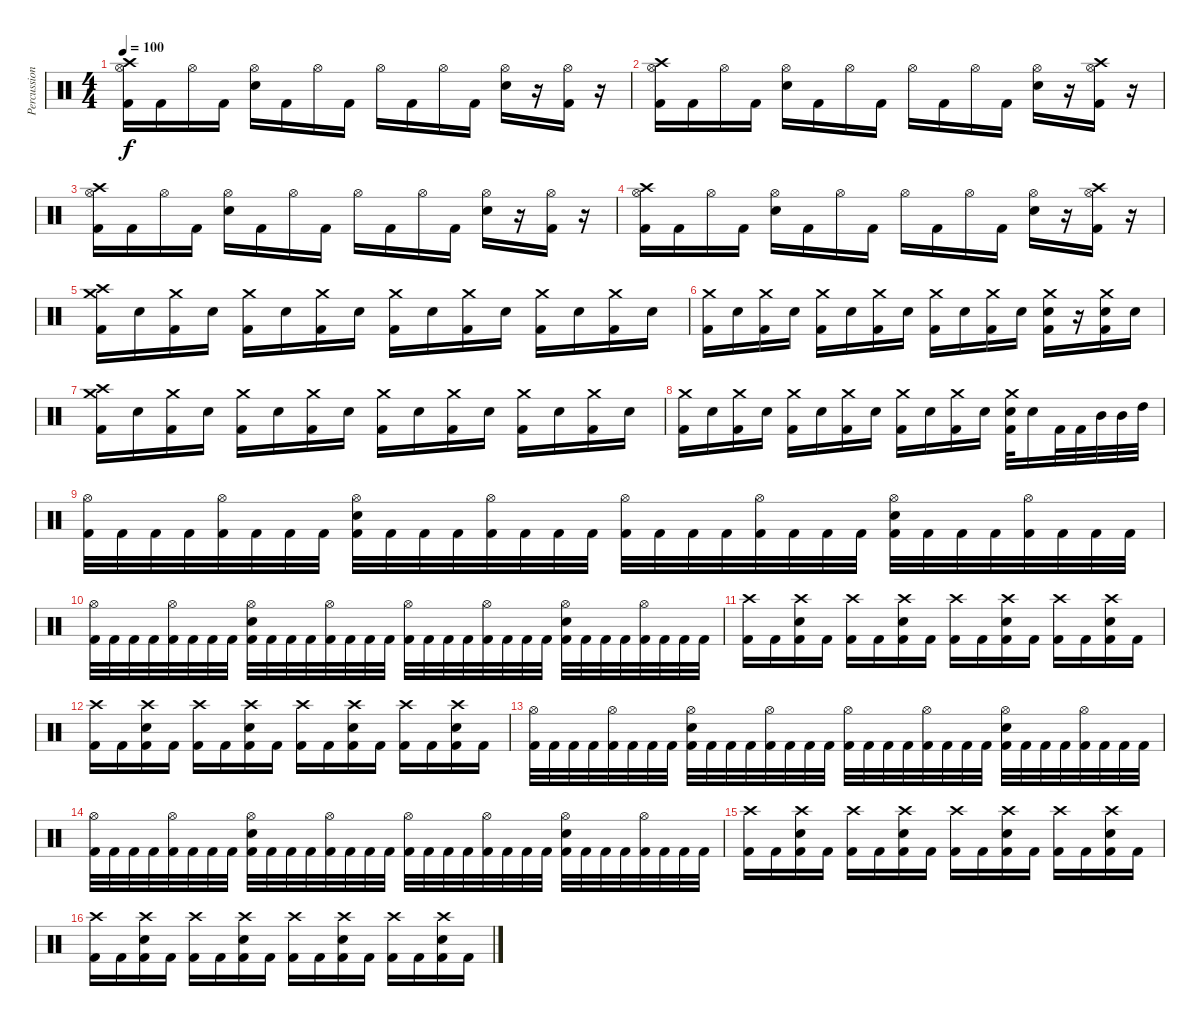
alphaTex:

\track ("Percussion" "Percussion") {instrument percussion}
\staff {score}
\articulation defaults
\ts (4 4)
\tempo 100
\clef neutral
\ks c
("Hi-Hat (open)" "Crash high (hit)" "Kick (hit) 2").16{dy f} "Kick (hit) 2".16 "Hi-Hat (open)".16 "Kick (hit) 2".16 ("Hi-Hat (open)" "Electric Snare (hit)").16 "Kick (hit) 2".16 "Hi-Hat (open)".16 "Kick (hit) 2".16 "Hi-Hat (open)".16 "Kick (hit) 2".16 "Hi-Hat (open)".16 "Kick (hit) 2".16 ("Hi-Hat (open)" "Electric Snare (hit)").16 r.16 ("Hi-Hat (open)" "Kick (hit) 2").16 r.16 |
("Hi-Hat (open)" "Crash high (hit)" "Kick (hit) 2").16 "Kick (hit) 2".16 "Hi-Hat (open)".16 "Kick (hit) 2".16 ("Hi-Hat (open)" "Electric Snare (hit)").16 "Kick (hit) 2".16 "Hi-Hat (open)".16 "Kick (hit) 2".16 "Hi-Hat (open)".16 "Kick (hit) 2".16 "Hi-Hat (open)".16 "Kick (hit) 2".16 ("Hi-Hat (open)" "Electric Snare (hit)").16 r.16 ("Hi-Hat (open)" "Crash high (hit)" "Kick (hit) 2").16 r.16 |
("Hi-Hat (open)" "Crash high (hit)" "Kick (hit) 2").16 "Kick (hit) 2".16 "Hi-Hat (open)".16 "Kick (hit) 2".16 ("Hi-Hat (open)" "Electric Snare (hit)").16 "Kick (hit) 2".16 "Hi-Hat (open)".16 "Kick (hit) 2".16 "Hi-Hat (open)".16 "Kick (hit) 2".16 "Hi-Hat (open)".16 "Kick (hit) 2".16 ("Hi-Hat (open)" "Electric Snare (hit)").16 r.16 ("Hi-Hat (open)" "Kick (hit) 2").16 r.16 |
("Hi-Hat (open)" "Crash high (hit)" "Kick (hit) 2").16 "Kick (hit) 2".16 "Hi-Hat (open)".16 "Kick (hit) 2".16 ("Hi-Hat (open)" "Electric Snare (hit)").16 "Kick (hit) 2".16 "Hi-Hat (open)".16 "Kick (hit) 2".16 "Hi-Hat (open)".16 "Kick (hit) 2".16 "Hi-Hat (open)".16 "Kick (hit) 2".16 ("Hi-Hat (open)" "Electric Snare (hit)").16 r.16 ("Hi-Hat (open)" "Crash high (hit)" "Kick (hit) 2").16 r.16 |
("Crash medium (hit)" "Crash high (hit)" "Kick (hit) 2").16 "Electric Snare (hit)".16 ("Crash medium (hit)" "Kick (hit) 2").16 "Electric Snare (hit)".16 ("Crash medium (hit)" "Kick (hit) 2").16 "Electric Snare (hit)".16 ("Crash medium (hit)" "Kick (hit) 2").16 "Electric Snare (hit)".16 ("Crash medium (hit)" "Kick (hit) 2").16 "Electric Snare (hit)".16 ("Crash medium (hit)" "Kick (hit) 2").16 "Electric Snare (hit)".16 ("Crash medium (hit)" "Kick (hit) 2").16 "Electric Snare (hit)".16 ("Crash medium (hit)" "Kick (hit) 2").16 "Electric Snare (hit)".16 |
("Crash medium (hit)" "Kick (hit) 2").16 "Electric Snare (hit)".16 ("Crash medium (hit)" "Kick (hit) 2").16 "Electric Snare (hit)".16 ("Crash medium (hit)" "Kick (hit) 2").16 "Electric Snare (hit)".16 ("Crash medium (hit)" "Kick (hit) 2").16 "Electric Snare (hit)".16 ("Crash medium (hit)" "Kick (hit) 2").16 "Electric Snare (hit)".16 ("Crash medium (hit)" "Kick (hit) 2").16 "Electric Snare (hit)".16 ("Crash medium (hit)" "Electric Snare (hit)" "Kick (hit) 2").16 r.16 ("Crash medium (hit)" "Electric Snare (hit)" "Kick (hit) 2").16 "Electric Snare (hit)".16 |
("Crash medium (hit)" "Crash high (hit)" "Kick (hit) 2").16 "Electric Snare (hit)".16 ("Crash medium (hit)" "Kick (hit) 2").16 "Electric Snare (hit)".16 ("Crash medium (hit)" "Kick (hit) 2").16 "Electric Snare (hit)".16 ("Crash medium (hit)" "Kick (hit) 2").16 "Electric Snare (hit)".16 ("Crash medium (hit)" "Kick (hit) 2").16 "Electric Snare (hit)".16 ("Crash medium (hit)" "Kick (hit) 2").16 "Electric Snare (hit)".16 ("Crash medium (hit)" "Kick (hit) 2").16 "Electric Snare (hit)".16 ("Crash medium (hit)" "Kick (hit) 2").16 "Electric Snare (hit)".16 |
("Crash medium (hit)" "Kick (hit) 2").16 "Electric Snare (hit)".16 ("Crash medium (hit)" "Kick (hit) 2").16 "Electric Snare (hit)".16 ("Crash medium (hit)" "Kick (hit) 2").16 "Electric Snare (hit)".16 ("Crash medium (hit)" "Kick (hit) 2").16 "Electric Snare (hit)".16 ("Crash medium (hit)" "Kick (hit) 2").16 "Electric Snare (hit)".16 ("Crash medium (hit)" "Kick (hit) 2").16 "Electric Snare (hit)".16 ("Crash medium (hit)" "Electric Snare (hit)" "Kick (hit) 2").32 "Electric Snare (hit)".16 "Kick (hit) 2".32 "Kick (hit) 2".32 "Mid Tom (hit)".32 "Mid Tom (hit)".32 "High Tom (hit)".32 |
("Hi-Hat (open)" "Kick (hit) 2").32 "Kick (hit) 2".32 "Kick (hit) 2".32 "Kick (hit) 2".32 ("Hi-Hat (open)" "Kick (hit) 2").32 "Kick (hit) 2".32 "Kick (hit) 2".32 "Kick (hit) 2".32 ("Hi-Hat (open)" "Electric Snare (hit)" "Kick (hit) 2").32 "Kick (hit) 2".32 "Kick (hit) 2".32 "Kick (hit) 2".32 ("Hi-Hat (open)" "Kick (hit) 2").32 "Kick (hit) 2".32 "Kick (hit) 2".32 "Kick (hit) 2".32 ("Hi-Hat (open)" "Kick (hit) 2").32 "Kick (hit) 2".32 "Kick (hit) 2".32 "Kick (hit) 2".32 ("Hi-Hat (open)" "Kick (hit) 2").32 "Kick (hit) 2".32 "Kick (hit) 2".32 "Kick (hit) 2".32 ("Hi-Hat (open)" "Electric Snare (hit)" "Kick (hit) 2").32 "Kick (hit) 2".32 "Kick (hit) 2".32 "Kick (hit) 2".32 ("Hi-Hat (open)" "Kick (hit) 2").32 "Kick (hit) 2".32 "Kick (hit) 2".32 "Kick (hit) 2".32 |
("Hi-Hat (open)" "Kick (hit) 2").32 "Kick (hit) 2".32 "Kick (hit) 2".32 "Kick (hit) 2".32 ("Hi-Hat (open)" "Kick (hit) 2").32 "Kick (hit) 2".32 "Kick (hit) 2".32 "Kick (hit) 2".32 ("Hi-Hat (open)" "Electric Snare (hit)" "Kick (hit) 2").32 "Kick (hit) 2".32 "Kick (hit) 2".32 "Kick (hit) 2".32 ("Hi-Hat (open)" "Kick (hit) 2").32 "Kick (hit) 2".32 "Kick (hit) 2".32 "Kick (hit) 2".32 ("Hi-Hat (open)" "Kick (hit) 2").32 "Kick (hit) 2".32 "Kick (hit) 2".32 "Kick (hit) 2".32 ("Hi-Hat (open)" "Kick (hit) 2").32 "Kick (hit) 2".32 "Kick (hit) 2".32 "Kick (hit) 2".32 ("Hi-Hat (open)" "Electric Snare (hit)" "Kick (hit) 2").32 "Kick (hit) 2".32 "Kick (hit) 2".32 "Kick (hit) 2".32 ("Hi-Hat (open)" "Kick (hit) 2").32 "Kick (hit) 2".32 "Kick (hit) 2".32 "Kick (hit) 2".32 |
("Crash high (hit)" "Kick (hit) 2").16 "Kick (hit) 2".16 ("Crash high (hit)" "Electric Snare (hit)" "Kick (hit) 2").16 "Kick (hit) 2".16 ("Crash high (hit)" "Kick (hit) 2").16 "Kick (hit) 2".16 ("Crash high (hit)" "Electric Snare (hit)" "Kick (hit) 2").16 "Kick (hit) 2".16 ("Crash high (hit)" "Kick (hit) 2").16 "Kick (hit) 2".16 ("Crash high (hit)" "Electric Snare (hit)" "Kick (hit) 2").16 "Kick (hit) 2".16 ("Crash high (hit)" "Kick (hit) 2").16 "Kick (hit) 2".16 ("Crash high (hit)" "Electric Snare (hit)" "Kick (hit) 2").16 "Kick (hit) 2".16 |
("Crash high (hit)" "Kick (hit) 2").16 "Kick (hit) 2".16 ("Crash high (hit)" "Electric Snare (hit)" "Kick (hit) 2").16 "Kick (hit) 2".16 ("Crash high (hit)" "Kick (hit) 2").16 "Kick (hit) 2".16 ("Crash high (hit)" "Electric Snare (hit)" "Kick (hit) 2").16 "Kick (hit) 2".16 ("Crash high (hit)" "Kick (hit) 2").16 "Kick (hit) 2".16 ("Crash high (hit)" "Electric Snare (hit)" "Kick (hit) 2").16 "Kick (hit) 2".16 ("Crash high (hit)" "Kick (hit) 2").16 "Kick (hit) 2".16 ("Crash high (hit)" "Electric Snare (hit)" "Kick (hit) 2").16 "Kick (hit) 2".16 |
("Hi-Hat (open)" "Kick (hit) 2").32 "Kick (hit) 2".32 "Kick (hit) 2".32 "Kick (hit) 2".32 ("Hi-Hat (open)" "Kick (hit) 2").32 "Kick (hit) 2".32 "Kick (hit) 2".32 "Kick (hit) 2".32 ("Hi-Hat (open)" "Electric Snare (hit)" "Kick (hit) 2").32 "Kick (hit) 2".32 "Kick (hit) 2".32 "Kick (hit) 2".32 ("Hi-Hat (open)" "Kick (hit) 2").32 "Kick (hit) 2".32 "Kick (hit) 2".32 "Kick (hit) 2".32 ("Hi-Hat (open)" "Kick (hit) 2").32 "Kick (hit) 2".32 "Kick (hit) 2".32 "Kick (hit) 2".32 ("Hi-Hat (open)" "Kick (hit) 2").32 "Kick (hit) 2".32 "Kick (hit) 2".32 "Kick (hit) 2".32 ("Hi-Hat (open)" "Electric Snare (hit)" "Kick (hit) 2").32 "Kick (hit) 2".32 "Kick (hit) 2".32 "Kick (hit) 2".32 ("Hi-Hat (open)" "Kick (hit) 2").32 "Kick (hit) 2".32 "Kick (hit) 2".32 "Kick (hit) 2".32 |
("Hi-Hat (open)" "Kick (hit) 2").32 "Kick (hit) 2".32 "Kick (hit) 2".32 "Kick (hit) 2".32 ("Hi-Hat (open)" "Kick (hit) 2").32 "Kick (hit) 2".32 "Kick (hit) 2".32 "Kick (hit) 2".32 ("Hi-Hat (open)" "Electric Snare (hit)" "Kick (hit) 2").32 "Kick (hit) 2".32 "Kick (hit) 2".32 "Kick (hit) 2".32 ("Hi-Hat (open)" "Kick (hit) 2").32 "Kick (hit) 2".32 "Kick (hit) 2".32 "Kick (hit) 2".32 ("Hi-Hat (open)" "Kick (hit) 2").32 "Kick (hit) 2".32 "Kick (hit) 2".32 "Kick (hit) 2".32 ("Hi-Hat (open)" "Kick (hit) 2").32 "Kick (hit) 2".32 "Kick (hit) 2".32 "Kick (hit) 2".32 ("Hi-Hat (open)" "Electric Snare (hit)" "Kick (hit) 2").32 "Kick (hit) 2".32 "Kick (hit) 2".32 "Kick (hit) 2".32 ("Hi-Hat (open)" "Kick (hit) 2").32 "Kick (hit) 2".32 "Kick (hit) 2".32 "Kick (hit) 2".32 |
("Crash high (hit)" "Kick (hit) 2").16 "Kick (hit) 2".16 ("Crash high (hit)" "Electric Snare (hit)" "Kick (hit) 2").16 "Kick (hit) 2".16 ("Crash high (hit)" "Kick (hit) 2").16 "Kick (hit) 2".16 ("Crash high (hit)" "Electric Snare (hit)" "Kick (hit) 2").16 "Kick (hit) 2".16 ("Crash high (hit)" "Kick (hit) 2").16 "Kick (hit) 2".16 ("Crash high (hit)" "Electric Snare (hit)" "Kick (hit) 2").16 "Kick (hit) 2".16 ("Crash high (hit)" "Kick (hit) 2").16 "Kick (hit) 2".16 ("Crash high (hit)" "Electric Snare (hit)" "Kick (hit) 2").16 "Kick (hit) 2".16 |
("Crash high (hit)" "Kick (hit) 2").16 "Kick (hit) 2".16 ("Crash high (hit)" "Electric Snare (hit)" "Kick (hit) 2").16 "Kick (hit) 2".16 ("Crash high (hit)" "Kick (hit) 2").16 "Kick (hit) 2".16 ("Crash high (hit)" "Electric Snare (hit)" "Kick (hit) 2").16 "Kick (hit) 2".16 ("Crash high (hit)" "Kick (hit) 2").16 "Kick (hit) 2".16 ("Crash high (hit)" "Electric Snare (hit)" "Kick (hit) 2").16 "Kick (hit) 2".16 ("Crash high (hit)" "Kick (hit) 2").16 "Kick (hit) 2".16 ("Crash high (hit)" "Electric Snare (hit)" "Kick (hit) 2").16 "Kick (hit) 2".16
